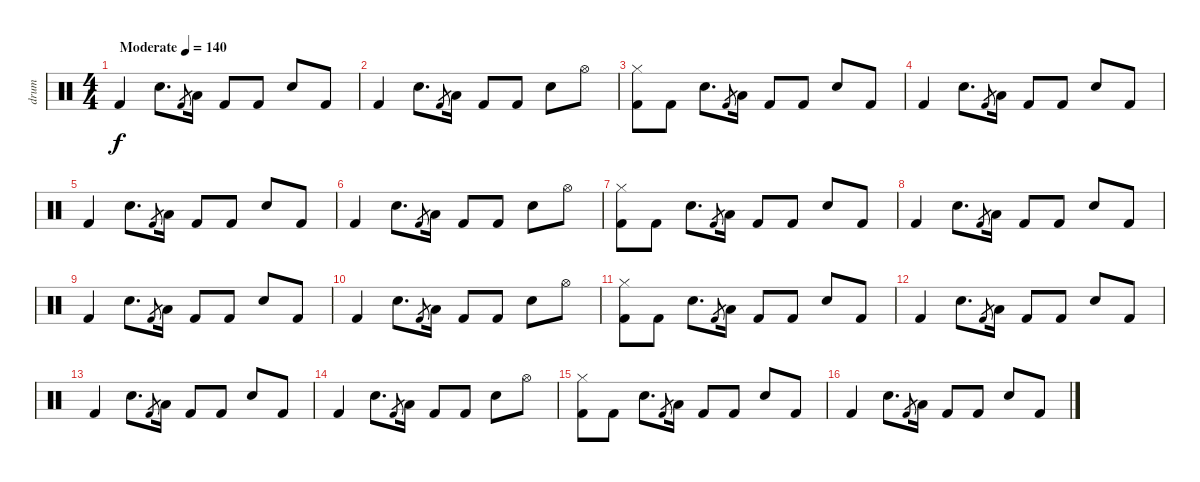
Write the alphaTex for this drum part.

\track ("drum" "drum") {instrument percussion}
\staff {score}
\articulation defaults
\ts (4 4)
\tempo (140 "Moderate")
\clef neutral
\ks c "Kick (hit) 2".4{dy f} "Electric Snare (hit)".8{d} "Kick (hit) 2".8{gr} "Low Floor Tom (hit)".16 "Kick (hit) 2".8 "Kick (hit) 2".8 "Electric Snare (hit)".8 "Kick (hit) 2".8
|
"Kick (hit) 2".4 "Electric Snare (hit)".8{d} "Kick (hit) 2".8{gr} "Low Floor Tom (hit)".16 "Kick (hit) 2".8 "Kick (hit) 2".8 "Electric Snare (hit)".8 "Hi-Hat (open)".8 |
("Hi-Hat (closed)" "Kick (hit) 2").8 "Kick (hit) 2".8 "Electric Snare (hit)".8{d} "Kick (hit) 2".8{gr} "Low Floor Tom (hit)".16 "Kick (hit) 2".8 "Kick (hit) 2".8 "Electric Snare (hit)".8 "Kick (hit) 2".8 |
"Kick (hit) 2".4 "Electric Snare (hit)".8{d} "Kick (hit) 2".8{gr} "Low Floor Tom (hit)".16 "Kick (hit) 2".8 "Kick (hit) 2".8 "Electric Snare (hit)".8 "Kick (hit) 2".8 |
"Kick (hit) 2".4 "Electric Snare (hit)".8{d} "Kick (hit) 2".8{gr} "Low Floor Tom (hit)".16 "Kick (hit) 2".8 "Kick (hit) 2".8 "Electric Snare (hit)".8 "Kick (hit) 2".8 |
"Kick (hit) 2".4 "Electric Snare (hit)".8{d} "Kick (hit) 2".8{gr} "Low Floor Tom (hit)".16 "Kick (hit) 2".8 "Kick (hit) 2".8 "Electric Snare (hit)".8 "Hi-Hat (open)".8 |
("Hi-Hat (closed)" "Kick (hit) 2").8 "Kick (hit) 2".8 "Electric Snare (hit)".8{d} "Kick (hit) 2".8{gr} "Low Floor Tom (hit)".16 "Kick (hit) 2".8 "Kick (hit) 2".8 "Electric Snare (hit)".8 "Kick (hit) 2".8 |
"Kick (hit) 2".4 "Electric Snare (hit)".8{d} "Kick (hit) 2".8{gr} "Low Floor Tom (hit)".16 "Kick (hit) 2".8 "Kick (hit) 2".8 "Electric Snare (hit)".8 "Kick (hit) 2".8 |
"Kick (hit) 2".4 "Electric Snare (hit)".8{d} "Kick (hit) 2".8{gr} "Low Floor Tom (hit)".16 "Kick (hit) 2".8 "Kick (hit) 2".8 "Electric Snare (hit)".8 "Kick (hit) 2".8 |
"Kick (hit) 2".4 "Electric Snare (hit)".8{d} "Kick (hit) 2".8{gr} "Low Floor Tom (hit)".16 "Kick (hit) 2".8 "Kick (hit) 2".8 "Electric Snare (hit)".8 "Hi-Hat (open)".8 |
("Hi-Hat (closed)" "Kick (hit) 2").8 "Kick (hit) 2".8 "Electric Snare (hit)".8{d} "Kick (hit) 2".8{gr} "Low Floor Tom (hit)".16 "Kick (hit) 2".8 "Kick (hit) 2".8 "Electric Snare (hit)".8 "Kick (hit) 2".8 |
"Kick (hit) 2".4 "Electric Snare (hit)".8{d} "Kick (hit) 2".8{gr} "Low Floor Tom (hit)".16 "Kick (hit) 2".8 "Kick (hit) 2".8 "Electric Snare (hit)".8 "Kick (hit) 2".8 |
"Kick (hit) 2".4 "Electric Snare (hit)".8{d} "Kick (hit) 2".8{gr} "Low Floor Tom (hit)".16 "Kick (hit) 2".8 "Kick (hit) 2".8 "Electric Snare (hit)".8 "Kick (hit) 2".8 |
"Kick (hit) 2".4 "Electric Snare (hit)".8{d} "Kick (hit) 2".8{gr} "Low Floor Tom (hit)".16 "Kick (hit) 2".8 "Kick (hit) 2".8 "Electric Snare (hit)".8 "Hi-Hat (open)".8 |
("Hi-Hat (closed)" "Kick (hit) 2").8 "Kick (hit) 2".8 "Electric Snare (hit)".8{d} "Kick (hit) 2".8{gr} "Low Floor Tom (hit)".16 "Kick (hit) 2".8 "Kick (hit) 2".8 "Electric Snare (hit)".8 "Kick (hit) 2".8 |
"Kick (hit) 2".4 "Electric Snare (hit)".8{d} "Kick (hit) 2".8{gr} "Low Floor Tom (hit)".16 "Kick (hit) 2".8 "Kick (hit) 2".8 "Electric Snare (hit)".8 "Kick (hit) 2".8
